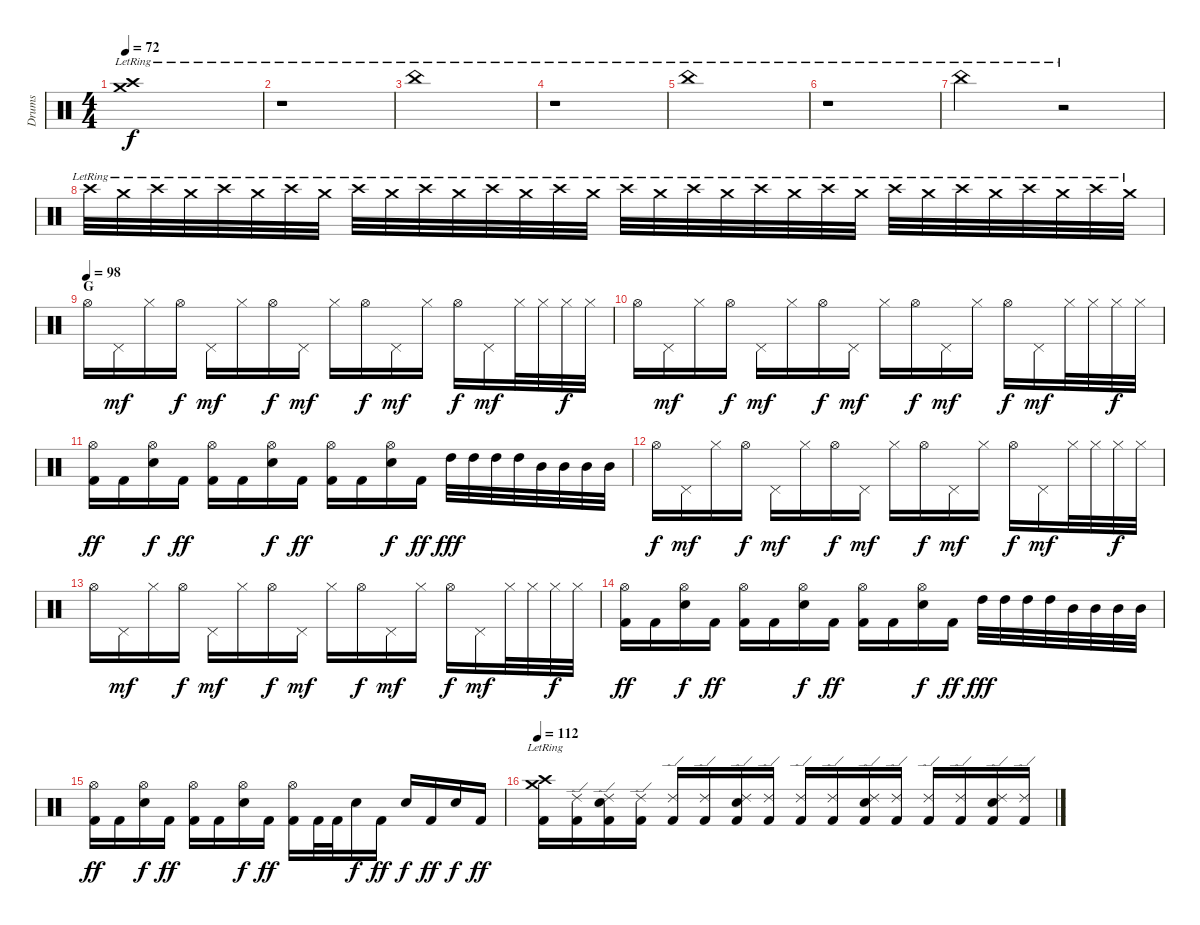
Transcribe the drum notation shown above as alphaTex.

\track ("Drums" "Drums") {instrument percussion}
\staff {score}
\articulation defaults
\ts (4 4)
\tempo 72
\clef neutral
\ks c
("Crash medium (hit)"{lr} "Crash high (hit)").1{dy f volume 16} |
r.1 |
"China (hit)"{lr}.1 |
r.1 |
"China (hit)"{lr}.1 |
r.1 |
"China (hit)"{lr}.2 r.2{volume 0} |
"Crash high (hit)"{lr}.32{volume 16} "Crash medium (hit)"{lr}.32 "Crash high (hit)"{lr}.32 "Crash medium (hit)"{lr}.32 "Crash high (hit)"{lr}.32 "Crash medium (hit)"{lr}.32 "Crash high (hit)"{lr}.32 "Crash medium (hit)"{lr}.32 "Crash high (hit)"{lr}.32 "Crash medium (hit)"{lr}.32 "Crash high (hit)"{lr}.32 "Crash medium (hit)"{lr}.32 "Crash high (hit)"{lr}.32 "Crash medium (hit)"{lr}.32 "Crash high (hit)"{lr}.32 "Crash medium (hit)"{lr}.32 "Crash high (hit)"{lr}.32 "Crash medium (hit)"{lr}.32 "Crash high (hit)"{lr}.32 "Crash medium (hit)"{lr}.32 "Crash high (hit)"{lr}.32 "Crash medium (hit)"{lr}.32 "Crash high (hit)"{lr}.32 "Crash medium (hit)"{lr}.32 "Crash high (hit)"{lr}.32 "Crash medium (hit)"{lr}.32 "Crash high (hit)"{lr}.32 "Crash medium (hit)"{lr}.32 "Crash high (hit)"{lr}.32 "Crash medium (hit)"{lr}.32 "Crash high (hit)"{lr}.32 "Crash medium (hit)"{lr}.32 |
\section ("" "G")
\tempo (98)
"Hi-Hat (open)".16{volume 16} "Pedal Hi-Hat (hit)".16{dy mf} "Hi-Hat (closed)".16 "Hi-Hat (open)".16{dy f} "Pedal Hi-Hat (hit)".16{dy mf} "Hi-Hat (closed)".16 "Hi-Hat (open)".16{dy f} "Pedal Hi-Hat (hit)".16{dy mf} "Hi-Hat (closed)".16 "Hi-Hat (open)".16{dy f} "Pedal Hi-Hat (hit)".16{dy mf} "Hi-Hat (closed)".16 "Hi-Hat (open)".16{dy f} "Pedal Hi-Hat (hit)".16{dy mf} "Hi-Hat (closed)".32 "Hi-Hat (closed)".32 "Hi-Hat (closed)".32{dy f} "Hi-Hat (closed)".32 |
"Hi-Hat (open)".16 "Pedal Hi-Hat (hit)".16{dy mf} "Hi-Hat (closed)".16 "Hi-Hat (open)".16{dy f} "Pedal Hi-Hat (hit)".16{dy mf} "Hi-Hat (closed)".16 "Hi-Hat (open)".16{dy f} "Pedal Hi-Hat (hit)".16{dy mf} "Hi-Hat (closed)".16 "Hi-Hat (open)".16{dy f} "Pedal Hi-Hat (hit)".16{dy mf} "Hi-Hat (closed)".16 "Hi-Hat (open)".16{dy f} "Pedal Hi-Hat (hit)".16{dy mf} "Hi-Hat (closed)".32 "Hi-Hat (closed)".32 "Hi-Hat (closed)".32{dy f} "Hi-Hat (closed)".32 |
("Hi-Hat (open)" "Kick (hit) 2").16{dy ff} "Kick (hit) 2".16 ("Hi-Hat (open)" "Snare (hit) 2").16{dy f} "Kick (hit) 2".16{dy ff} ("Hi-Hat (open)" "Kick (hit) 2").16 "Kick (hit) 2".16 ("Hi-Hat (open)" "Snare (hit) 2").16{dy f} "Kick (hit) 2".16{dy ff} ("Hi-Hat (open)" "Kick (hit) 2").16 "Kick (hit) 2".16 ("Hi-Hat (open)" "Snare (hit) 2").16{dy f} "Kick (hit) 2".16{dy ff} "High Tom (hit)".32{dy fff} "High Tom (hit)".32 "High Tom (hit)".32 "High Tom (hit)".32 "Mid Tom (hit)".32 "Mid Tom (hit)".32 "Mid Tom (hit)".32 "Mid Tom (hit)".32 |
"Hi-Hat (open)".16{dy f} "Pedal Hi-Hat (hit)".16{dy mf} "Hi-Hat (closed)".16 "Hi-Hat (open)".16{dy f} "Pedal Hi-Hat (hit)".16{dy mf} "Hi-Hat (closed)".16 "Hi-Hat (open)".16{dy f} "Pedal Hi-Hat (hit)".16{dy mf} "Hi-Hat (closed)".16 "Hi-Hat (open)".16{dy f} "Pedal Hi-Hat (hit)".16{dy mf} "Hi-Hat (closed)".16 "Hi-Hat (open)".16{dy f} "Pedal Hi-Hat (hit)".16{dy mf} "Hi-Hat (closed)".32 "Hi-Hat (closed)".32 "Hi-Hat (closed)".32{dy f} "Hi-Hat (closed)".32 |
"Hi-Hat (open)".16 "Pedal Hi-Hat (hit)".16{dy mf} "Hi-Hat (closed)".16 "Hi-Hat (open)".16{dy f} "Pedal Hi-Hat (hit)".16{dy mf} "Hi-Hat (closed)".16 "Hi-Hat (open)".16{dy f} "Pedal Hi-Hat (hit)".16{dy mf} "Hi-Hat (closed)".16 "Hi-Hat (open)".16{dy f} "Pedal Hi-Hat (hit)".16{dy mf} "Hi-Hat (closed)".16 "Hi-Hat (open)".16{dy f} "Pedal Hi-Hat (hit)".16{dy mf} "Hi-Hat (closed)".32 "Hi-Hat (closed)".32 "Hi-Hat (closed)".32{dy f} "Hi-Hat (closed)".32 |
("Hi-Hat (open)" "Kick (hit) 2").16{dy ff} "Kick (hit) 2".16 ("Hi-Hat (open)" "Snare (hit) 2").16{dy f} "Kick (hit) 2".16{dy ff} ("Hi-Hat (open)" "Kick (hit) 2").16 "Kick (hit) 2".16 ("Hi-Hat (open)" "Snare (hit) 2").16{dy f} "Kick (hit) 2".16{dy ff} ("Hi-Hat (open)" "Kick (hit) 2").16 "Kick (hit) 2".16 ("Hi-Hat (open)" "Snare (hit) 2").16{dy f} "Kick (hit) 2".16{dy ff} "High Tom (hit)".32{dy fff} "High Tom (hit)".32 "High Tom (hit)".32 "High Tom (hit)".32 "Mid Tom (hit)".32 "Mid Tom (hit)".32 "Mid Tom (hit)".32 "Mid Tom (hit)".32 |
("Hi-Hat (open)" "Kick (hit) 2").16{dy ff} "Kick (hit) 2".16 ("Hi-Hat (open)" "Snare (hit) 2").16{dy f} "Kick (hit) 2".16{dy ff} ("Hi-Hat (open)" "Kick (hit) 2").16 "Kick (hit) 2".16 ("Hi-Hat (open)" "Snare (hit) 2").16{dy f} "Kick (hit) 2".16{dy ff} ("Hi-Hat (open)" "Kick (hit) 2").16 "Kick (hit) 2".32 "Kick (hit) 2".32 "Snare (hit) 2".16{dy f} "Kick (hit) 2".16{dy ff} "Snare (hit) 2".16{dy f} "Kick (hit) 2".16{dy ff} "Snare (hit) 2".16{dy f} "Kick (hit) 2".16{dy ff} |
\tempo 112
("Crash medium (hit)"{lr} "Crash high (hit)" "Kick (hit) 2").16 ("Ride (edge) 2" "Kick (hit) 2").16 ("Ride (edge) 2" "Snare (hit) 2" "Kick (hit) 2").16 ("Ride (edge) 2" "Kick (hit) 2").16 ("Ride (edge) 2" "Kick (hit) 2").16 ("Ride (edge) 2" "Kick (hit) 2").16 ("Ride (edge) 2" "Snare (hit) 2" "Kick (hit) 2").16 ("Ride (edge) 2" "Kick (hit) 2").16 ("Ride (edge) 2" "Kick (hit) 2").16 ("Ride (edge) 2" "Kick (hit) 2").16 ("Ride (edge) 2" "Snare (hit) 2" "Kick (hit) 2").16 ("Ride (edge) 2" "Kick (hit) 2").16 ("Ride (edge) 2" "Kick (hit) 2").16 ("Ride (edge) 2" "Kick (hit) 2").16 ("Ride (edge) 2" "Snare (hit) 2" "Kick (hit) 2").16 ("Ride (edge) 2" "Kick (hit) 2").16
